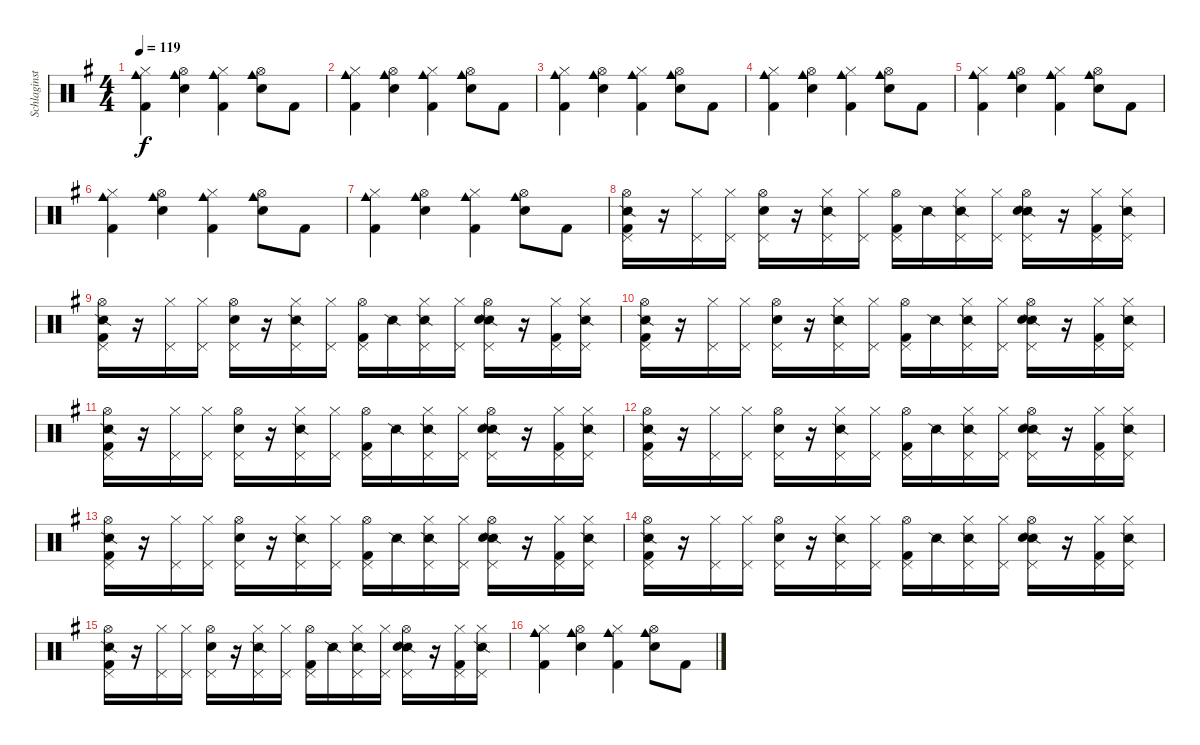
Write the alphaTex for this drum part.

\track ("Schlaginstrumente - Auswahl" "Schlaginst") {instrument percussion}
\staff {score}
\articulation defaults
\ts (4 4)
\tempo 119
\clef neutral
\ks g
("Cowbell medium (hit)" "Hi-Hat (closed)" "Kick (hit) 2").4{dy f} ("Cowbell medium (hit)" "Hi-Hat (open)" "Snare (hit) 2").4 ("Cowbell medium (hit)" "Hi-Hat (closed)" "Kick (hit) 2").4 ("Cowbell medium (hit)" "Hi-Hat (open)" "Snare (hit) 2").8 "Kick (hit) 2".8 |
("Cowbell medium (hit)" "Hi-Hat (closed)" "Kick (hit) 2").4 ("Cowbell medium (hit)" "Hi-Hat (open)" "Snare (hit) 2").4 ("Cowbell medium (hit)" "Hi-Hat (closed)" "Kick (hit) 2").4 ("Cowbell medium (hit)" "Hi-Hat (open)" "Snare (hit) 2").8 "Kick (hit) 2".8 |
("Cowbell medium (hit)" "Hi-Hat (closed)" "Kick (hit) 2").4 ("Cowbell medium (hit)" "Hi-Hat (open)" "Snare (hit) 2").4 ("Cowbell medium (hit)" "Hi-Hat (closed)" "Kick (hit) 2").4 ("Cowbell medium (hit)" "Hi-Hat (open)" "Snare (hit) 2").8 "Kick (hit) 2".8 |
("Cowbell medium (hit)" "Hi-Hat (closed)" "Kick (hit) 2").4 ("Cowbell medium (hit)" "Hi-Hat (open)" "Snare (hit) 2").4 ("Cowbell medium (hit)" "Hi-Hat (closed)" "Kick (hit) 2").4 ("Cowbell medium (hit)" "Hi-Hat (open)" "Snare (hit) 2").8 "Kick (hit) 2".8 |
("Cowbell medium (hit)" "Hi-Hat (closed)" "Kick (hit) 2").4 ("Cowbell medium (hit)" "Hi-Hat (open)" "Snare (hit) 2").4 ("Cowbell medium (hit)" "Hi-Hat (closed)" "Kick (hit) 2").4 ("Cowbell medium (hit)" "Hi-Hat (open)" "Snare (hit) 2").8 "Kick (hit) 2".8 |
("Cowbell medium (hit)" "Hi-Hat (closed)" "Kick (hit) 2").4 ("Cowbell medium (hit)" "Hi-Hat (open)" "Snare (hit) 2").4 ("Cowbell medium (hit)" "Hi-Hat (closed)" "Kick (hit) 2").4 ("Cowbell medium (hit)" "Hi-Hat (open)" "Snare (hit) 2").8 "Kick (hit) 2".8 |
("Cowbell medium (hit)" "Hi-Hat (closed)" "Kick (hit) 2").4 ("Cowbell medium (hit)" "Hi-Hat (open)" "Snare (hit) 2").4 ("Cowbell medium (hit)" "Hi-Hat (closed)" "Kick (hit) 2").4 ("Cowbell medium (hit)" "Hi-Hat (open)" "Snare (hit) 2").8 "Kick (hit) 2".8 |
("Pedal Hi-Hat (hit)" "Hi-Hat (open)" "Snare (side stick) 2" "Kick (hit) 2").16 r.16 ("Pedal Hi-Hat (hit)" "Hi-Hat (closed)").16 ("Pedal Hi-Hat (hit)" "Hi-Hat (closed)").16 ("Pedal Hi-Hat (hit)" "Hi-Hat (open)" "Snare (hit) 2").16 r.16 ("Pedal Hi-Hat (hit)" "Hi-Hat (closed)" "Snare (side stick) 2").16 ("Pedal Hi-Hat (hit)" "Hi-Hat (closed)").16 ("Pedal Hi-Hat (hit)" "Hi-Hat (open)" "Kick (hit) 2").16 "Snare (side stick) 2".16 ("Pedal Hi-Hat (hit)" "Hi-Hat (closed)" "Snare (side stick) 2").16 ("Pedal Hi-Hat (hit)" "Hi-Hat (closed)").16 ("Pedal Hi-Hat (hit)" "Hi-Hat (open)" "Snare (side stick) 2" "Snare (hit) 2").16 r.16 ("Pedal Hi-Hat (hit)" "Hi-Hat (closed)" "Kick (hit) 2").16 ("Pedal Hi-Hat (hit)" "Hi-Hat (closed)" "Snare (side stick) 2").16 |
("Pedal Hi-Hat (hit)" "Hi-Hat (open)" "Snare (side stick) 2" "Kick (hit) 2").16 r.16 ("Pedal Hi-Hat (hit)" "Hi-Hat (closed)").16 ("Pedal Hi-Hat (hit)" "Hi-Hat (closed)").16 ("Pedal Hi-Hat (hit)" "Hi-Hat (open)" "Snare (hit) 2").16 r.16 ("Pedal Hi-Hat (hit)" "Hi-Hat (closed)" "Snare (side stick) 2").16 ("Pedal Hi-Hat (hit)" "Hi-Hat (closed)").16 ("Pedal Hi-Hat (hit)" "Hi-Hat (open)" "Kick (hit) 2").16 "Snare (side stick) 2".16 ("Pedal Hi-Hat (hit)" "Hi-Hat (closed)" "Snare (side stick) 2").16 ("Pedal Hi-Hat (hit)" "Hi-Hat (closed)").16 ("Pedal Hi-Hat (hit)" "Hi-Hat (open)" "Snare (side stick) 2" "Snare (hit) 2").16 r.16 ("Pedal Hi-Hat (hit)" "Hi-Hat (closed)" "Kick (hit) 2").16 ("Pedal Hi-Hat (hit)" "Hi-Hat (closed)" "Snare (side stick) 2").16 |
("Pedal Hi-Hat (hit)" "Hi-Hat (open)" "Snare (side stick) 2" "Kick (hit) 2").16 r.16 ("Pedal Hi-Hat (hit)" "Hi-Hat (closed)").16 ("Pedal Hi-Hat (hit)" "Hi-Hat (closed)").16 ("Pedal Hi-Hat (hit)" "Hi-Hat (open)" "Snare (hit) 2").16 r.16 ("Pedal Hi-Hat (hit)" "Hi-Hat (closed)" "Snare (side stick) 2").16 ("Pedal Hi-Hat (hit)" "Hi-Hat (closed)").16 ("Pedal Hi-Hat (hit)" "Hi-Hat (open)" "Kick (hit) 2").16 "Snare (side stick) 2".16 ("Pedal Hi-Hat (hit)" "Hi-Hat (closed)" "Snare (side stick) 2").16 ("Pedal Hi-Hat (hit)" "Hi-Hat (closed)").16 ("Pedal Hi-Hat (hit)" "Hi-Hat (open)" "Snare (side stick) 2" "Snare (hit) 2").16 r.16 ("Pedal Hi-Hat (hit)" "Hi-Hat (closed)" "Kick (hit) 2").16 ("Pedal Hi-Hat (hit)" "Hi-Hat (closed)" "Snare (side stick) 2").16 |
("Pedal Hi-Hat (hit)" "Hi-Hat (open)" "Snare (side stick) 2" "Kick (hit) 2").16 r.16 ("Pedal Hi-Hat (hit)" "Hi-Hat (closed)").16 ("Pedal Hi-Hat (hit)" "Hi-Hat (closed)").16 ("Pedal Hi-Hat (hit)" "Hi-Hat (open)" "Snare (hit) 2").16 r.16 ("Pedal Hi-Hat (hit)" "Hi-Hat (closed)" "Snare (side stick) 2").16 ("Pedal Hi-Hat (hit)" "Hi-Hat (closed)").16 ("Pedal Hi-Hat (hit)" "Hi-Hat (open)" "Kick (hit) 2").16 "Snare (side stick) 2".16 ("Pedal Hi-Hat (hit)" "Hi-Hat (closed)" "Snare (side stick) 2").16 ("Pedal Hi-Hat (hit)" "Hi-Hat (closed)").16 ("Pedal Hi-Hat (hit)" "Hi-Hat (open)" "Snare (side stick) 2" "Snare (hit) 2").16 r.16 ("Pedal Hi-Hat (hit)" "Hi-Hat (closed)" "Kick (hit) 2").16 ("Pedal Hi-Hat (hit)" "Hi-Hat (closed)" "Snare (side stick) 2").16 |
("Pedal Hi-Hat (hit)" "Hi-Hat (open)" "Snare (side stick) 2" "Kick (hit) 2").16 r.16 ("Pedal Hi-Hat (hit)" "Hi-Hat (closed)").16 ("Pedal Hi-Hat (hit)" "Hi-Hat (closed)").16 ("Pedal Hi-Hat (hit)" "Hi-Hat (open)" "Snare (hit) 2").16 r.16 ("Pedal Hi-Hat (hit)" "Hi-Hat (closed)" "Snare (side stick) 2").16 ("Pedal Hi-Hat (hit)" "Hi-Hat (closed)").16 ("Pedal Hi-Hat (hit)" "Hi-Hat (open)" "Kick (hit) 2").16 "Snare (side stick) 2".16 ("Pedal Hi-Hat (hit)" "Hi-Hat (closed)" "Snare (side stick) 2").16 ("Pedal Hi-Hat (hit)" "Hi-Hat (closed)").16 ("Pedal Hi-Hat (hit)" "Hi-Hat (open)" "Snare (side stick) 2" "Snare (hit) 2").16 r.16 ("Pedal Hi-Hat (hit)" "Hi-Hat (closed)" "Kick (hit) 2").16 ("Pedal Hi-Hat (hit)" "Hi-Hat (closed)" "Snare (side stick) 2").16 |
("Pedal Hi-Hat (hit)" "Hi-Hat (open)" "Snare (side stick) 2" "Kick (hit) 2").16 r.16 ("Pedal Hi-Hat (hit)" "Hi-Hat (closed)").16 ("Pedal Hi-Hat (hit)" "Hi-Hat (closed)").16 ("Pedal Hi-Hat (hit)" "Hi-Hat (open)" "Snare (hit) 2").16 r.16 ("Pedal Hi-Hat (hit)" "Hi-Hat (closed)" "Snare (side stick) 2").16 ("Pedal Hi-Hat (hit)" "Hi-Hat (closed)").16 ("Pedal Hi-Hat (hit)" "Hi-Hat (open)" "Kick (hit) 2").16 "Snare (side stick) 2".16 ("Pedal Hi-Hat (hit)" "Hi-Hat (closed)" "Snare (side stick) 2").16 ("Pedal Hi-Hat (hit)" "Hi-Hat (closed)").16 ("Pedal Hi-Hat (hit)" "Hi-Hat (open)" "Snare (side stick) 2" "Snare (hit) 2").16 r.16 ("Pedal Hi-Hat (hit)" "Hi-Hat (closed)" "Kick (hit) 2").16 ("Pedal Hi-Hat (hit)" "Hi-Hat (closed)" "Snare (side stick) 2").16 |
("Pedal Hi-Hat (hit)" "Hi-Hat (open)" "Snare (side stick) 2" "Kick (hit) 2").16 r.16 ("Pedal Hi-Hat (hit)" "Hi-Hat (closed)").16 ("Pedal Hi-Hat (hit)" "Hi-Hat (closed)").16 ("Pedal Hi-Hat (hit)" "Hi-Hat (open)" "Snare (hit) 2").16 r.16 ("Pedal Hi-Hat (hit)" "Hi-Hat (closed)" "Snare (side stick) 2").16 ("Pedal Hi-Hat (hit)" "Hi-Hat (closed)").16 ("Pedal Hi-Hat (hit)" "Hi-Hat (open)" "Kick (hit) 2").16 "Snare (side stick) 2".16 ("Pedal Hi-Hat (hit)" "Hi-Hat (closed)" "Snare (side stick) 2").16 ("Pedal Hi-Hat (hit)" "Hi-Hat (closed)").16 ("Pedal Hi-Hat (hit)" "Hi-Hat (open)" "Snare (side stick) 2" "Snare (hit) 2").16 r.16 ("Pedal Hi-Hat (hit)" "Hi-Hat (closed)" "Kick (hit) 2").16 ("Pedal Hi-Hat (hit)" "Hi-Hat (closed)" "Snare (side stick) 2").16 |
("Pedal Hi-Hat (hit)" "Hi-Hat (open)" "Snare (side stick) 2" "Kick (hit) 2").16 r.16 ("Pedal Hi-Hat (hit)" "Hi-Hat (closed)").16 ("Pedal Hi-Hat (hit)" "Hi-Hat (closed)").16 ("Pedal Hi-Hat (hit)" "Hi-Hat (open)" "Snare (hit) 2").16 r.16 ("Pedal Hi-Hat (hit)" "Hi-Hat (closed)" "Snare (side stick) 2").16 ("Pedal Hi-Hat (hit)" "Hi-Hat (closed)").16 ("Pedal Hi-Hat (hit)" "Hi-Hat (open)" "Kick (hit) 2").16 "Snare (side stick) 2".16 ("Pedal Hi-Hat (hit)" "Hi-Hat (closed)" "Snare (side stick) 2").16 ("Pedal Hi-Hat (hit)" "Hi-Hat (closed)").16 ("Pedal Hi-Hat (hit)" "Hi-Hat (open)" "Snare (side stick) 2" "Snare (hit) 2").16 r.16 ("Pedal Hi-Hat (hit)" "Hi-Hat (closed)" "Kick (hit) 2").16 ("Pedal Hi-Hat (hit)" "Hi-Hat (closed)" "Snare (side stick) 2").16 |
("Cowbell medium (hit)" "Hi-Hat (closed)" "Kick (hit) 2").4 ("Cowbell medium (hit)" "Hi-Hat (open)" "Snare (hit) 2").4 ("Cowbell medium (hit)" "Hi-Hat (closed)" "Kick (hit) 2").4 ("Cowbell medium (hit)" "Hi-Hat (open)" "Snare (hit) 2").8 "Kick (hit) 2".8
